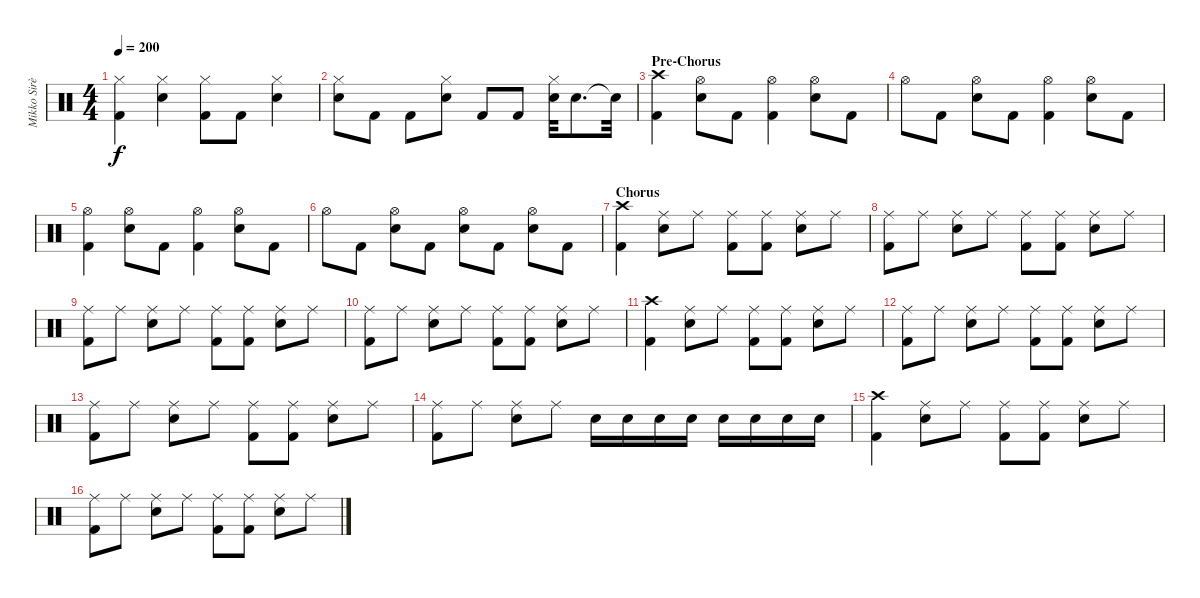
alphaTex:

\track ("Mikko Sirèn" "Mikko Sirè") {instrument percussion}
\staff {score}
\articulation defaults
\ts (4 4)
\tempo 200
\clef neutral
\ks c
("Hi-Hat (closed)" "Kick (hit) 2").4{dy f} ("Hi-Hat (closed)" "Electric Snare (hit)").4 ("Hi-Hat (closed)" "Kick (hit) 2").8 "Kick (hit) 2".8 ("Hi-Hat (closed)" "Electric Snare (hit)").4 |
("Hi-Hat (closed)" "Electric Snare (hit)").8 "Kick (hit) 2".8 "Kick (hit) 2".8 ("Hi-Hat (closed)" "Electric Snare (hit)").8 "Kick (hit) 2".8 "Kick (hit) 2".8 ("Hi-Hat (closed)" "Electric Snare (hit)").32 "Electric Snare (hit)".8{d} "Electric Snare (hit)"{t}.32 |
\section ("" "Pre-Chorus")
("Crash high (hit)" "Kick (hit) 2").4 ("Hi-Hat (open)" "Electric Snare (hit)").8 "Kick (hit) 2".8 ("Hi-Hat (open)" "Kick (hit) 2").4 ("Hi-Hat (open)" "Electric Snare (hit)").8 "Kick (hit) 2".8 |
"Hi-Hat (open)".8 "Kick (hit) 2".8 ("Hi-Hat (open)" "Electric Snare (hit)").8 "Kick (hit) 2".8 ("Hi-Hat (open)" "Kick (hit) 2").4 ("Hi-Hat (open)" "Electric Snare (hit)").8 "Kick (hit) 2".8 |
("Hi-Hat (open)" "Kick (hit) 2").4 ("Hi-Hat (open)" "Electric Snare (hit)").8 "Kick (hit) 2".8 ("Hi-Hat (open)" "Kick (hit) 2").4 ("Hi-Hat (open)" "Electric Snare (hit)").8 "Kick (hit) 2".8 |
"Hi-Hat (open)".8 "Kick (hit) 2".8 ("Hi-Hat (open)" "Electric Snare (hit)").8 "Kick (hit) 2".8 ("Hi-Hat (open)" "Electric Snare (hit)").8 "Kick (hit) 2".8 ("Hi-Hat (open)" "Electric Snare (hit)").8 "Kick (hit) 2".8 |
\section ("" "Chorus")
("Crash high (hit)" "Kick (hit) 2").4 ("Ride (middle)" "Electric Snare (hit)").8 "Ride (middle)".8 ("Ride (middle)" "Kick (hit) 2").8 ("Ride (middle)" "Kick (hit) 2").8 ("Ride (middle)" "Electric Snare (hit)").8 "Ride (middle)".8 |
("Ride (middle)" "Kick (hit) 2").8 "Ride (middle)".8 ("Ride (middle)" "Electric Snare (hit)").8 "Ride (middle)".8 ("Ride (middle)" "Kick (hit) 2").8 ("Ride (middle)" "Kick (hit) 2").8 ("Ride (middle)" "Electric Snare (hit)").8 "Ride (middle)".8 |
("Ride (middle)" "Kick (hit) 2").8 "Ride (middle)".8 ("Ride (middle)" "Electric Snare (hit)").8 "Ride (middle)".8 ("Ride (middle)" "Kick (hit) 2").8 ("Ride (middle)" "Kick (hit) 2").8 ("Ride (middle)" "Electric Snare (hit)").8 "Ride (middle)".8 |
("Ride (middle)" "Kick (hit) 2").8 "Ride (middle)".8 ("Ride (middle)" "Electric Snare (hit)").8 "Ride (middle)".8 ("Ride (middle)" "Kick (hit) 2").8 ("Ride (middle)" "Kick (hit) 2").8 ("Ride (middle)" "Electric Snare (hit)").8 "Ride (middle)".8 |
("Crash high (hit)" "Kick (hit) 2").4 ("Ride (middle)" "Electric Snare (hit)").8 "Ride (middle)".8 ("Ride (middle)" "Kick (hit) 2").8 ("Ride (middle)" "Kick (hit) 2").8 ("Ride (middle)" "Electric Snare (hit)").8 "Ride (middle)".8 |
("Ride (middle)" "Kick (hit) 2").8 "Ride (middle)".8 ("Ride (middle)" "Electric Snare (hit)").8 "Ride (middle)".8 ("Ride (middle)" "Kick (hit) 2").8 ("Ride (middle)" "Kick (hit) 2").8 ("Ride (middle)" "Electric Snare (hit)").8 "Ride (middle)".8 |
("Ride (middle)" "Kick (hit) 2").8 "Ride (middle)".8 ("Ride (middle)" "Electric Snare (hit)").8 "Ride (middle)".8 ("Ride (middle)" "Kick (hit) 2").8 ("Ride (middle)" "Kick (hit) 2").8 ("Ride (middle)" "Electric Snare (hit)").8 "Ride (middle)".8 |
("Ride (middle)" "Kick (hit) 2").8 "Ride (middle)".8 ("Ride (middle)" "Electric Snare (hit)").8 "Ride (middle)".8 "Electric Snare (hit)".16 "Electric Snare (hit)".16 "Electric Snare (hit)".16 "Electric Snare (hit)".16 "Electric Snare (hit)".16 "Electric Snare (hit)".16 "Electric Snare (hit)".16 "Electric Snare (hit)".16 |
("Crash high (hit)" "Kick (hit) 2").4 ("Ride (middle)" "Electric Snare (hit)").8 "Ride (middle)".8 ("Ride (middle)" "Kick (hit) 2").8 ("Ride (middle)" "Kick (hit) 2").8 ("Ride (middle)" "Electric Snare (hit)").8 "Ride (middle)".8 |
("Ride (middle)" "Kick (hit) 2").8 "Ride (middle)".8 ("Ride (middle)" "Electric Snare (hit)").8 "Ride (middle)".8 ("Ride (middle)" "Kick (hit) 2").8 ("Ride (middle)" "Kick (hit) 2").8 ("Ride (middle)" "Electric Snare (hit)").8 "Ride (middle)".8
